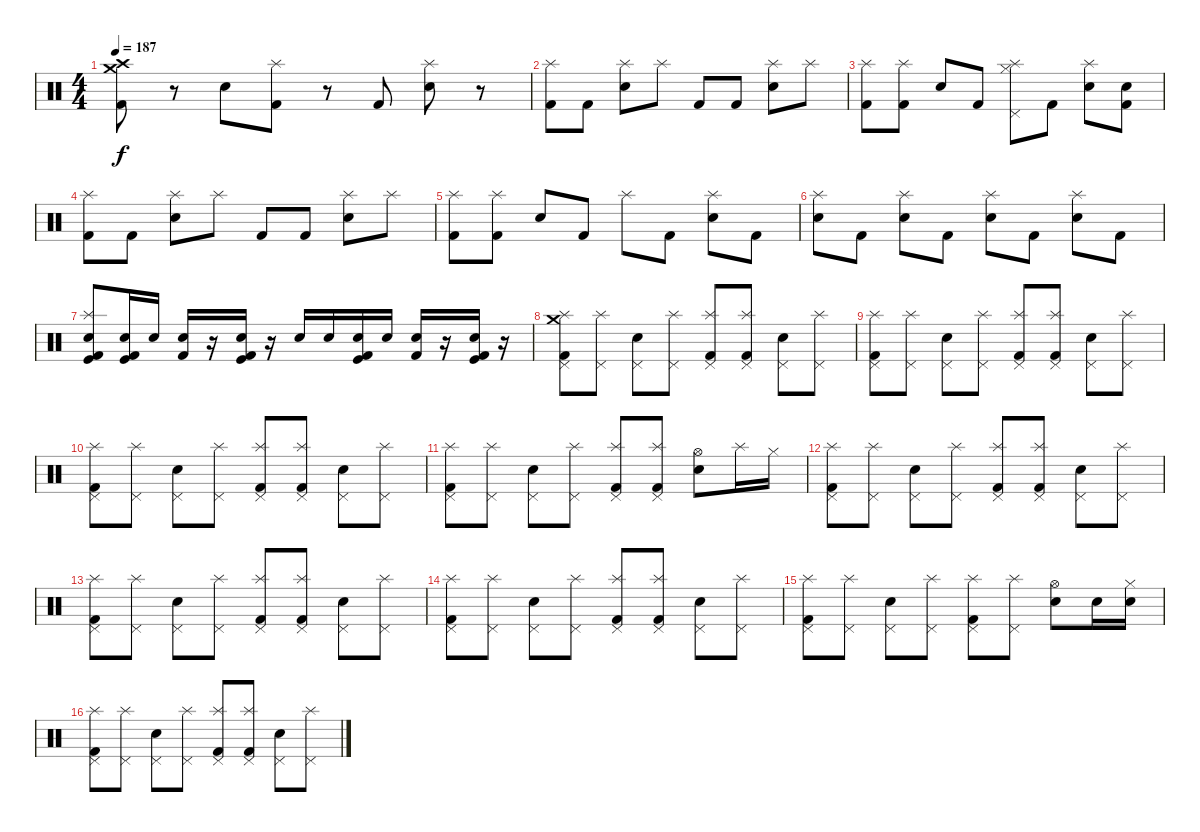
\track "" {instrument percussion}
\staff {score}
\articulation defaults
\ts (4 4)
\tempo 187
\clef neutral
\ks c
("Crash medium (hit)" "Crash high (hit)" "Kick (hit) 2").8{dy f} r.8 "Electric Snare (hit)".8 ("Splash (hit)" "Kick (hit) 2").8 r.8 "Kick (hit) 2".8 ("Splash (hit)" "Electric Snare (hit)").8 r.8 |
("Splash (hit)" "Kick (hit) 2").8 "Kick (hit) 2".8 ("Splash (hit)" "Electric Snare (hit)").8 "Splash (hit)".8 "Kick (hit) 2".8 "Kick (hit) 2".8 ("Splash (hit)" "Electric Snare (hit)").8 "Splash (hit)".8 |
("Splash (hit)" "Kick (hit) 2").8 ("Splash (hit)" "Kick (hit) 2").8 "Electric Snare (hit)".8 "Kick (hit) 2".8 ("Splash (hit)" "Hi-Hat (closed)" "Pedal Hi-Hat (hit)").8 "Kick (hit) 2".8 ("Splash (hit)" "Electric Snare (hit)").8 ("Electric Snare (hit)" "Kick (hit) 2").8 |
("Splash (hit)" "Kick (hit) 2").8 "Kick (hit) 2".8 ("Splash (hit)" "Electric Snare (hit)").8 "Splash (hit)".8 "Kick (hit) 2".8 "Kick (hit) 2".8 ("Splash (hit)" "Electric Snare (hit)").8 "Splash (hit)".8 |
("Splash (hit)" "Kick (hit) 2").8 ("Splash (hit)" "Kick (hit) 2").8 "Electric Snare (hit)".8 "Kick (hit) 2".8 "Splash (hit)".8 "Kick (hit) 2".8 ("Splash (hit)" "Electric Snare (hit)").8 "Kick (hit) 2".8 |
("Splash (hit)" "Electric Snare (hit)").8 "Kick (hit) 2".8 ("Splash (hit)" "Electric Snare (hit)").8 "Kick (hit) 2".8 ("Splash (hit)" "Electric Snare (hit)").8 "Kick (hit) 2".8 ("Splash (hit)" "Electric Snare (hit)").8 "Kick (hit) 2".8 |
("Splash (hit)" "Electric Snare (hit)" "Kick (hit)" "Kick (hit) 2").8 ("Kick (hit) 2" "Kick (hit)" "Electric Snare (hit)").16 "Electric Snare (hit)".16 ("Kick (hit) 2" "Electric Snare (hit)").16 r.16 ("Kick (hit) 2" "Kick (hit)" "Electric Snare (hit)").16 r.16 "Electric Snare (hit)".16 "Electric Snare (hit)".16 ("Kick (hit) 2" "Kick (hit)" "Electric Snare (hit)").16 "Electric Snare (hit)".16 ("Kick (hit) 2" "Electric Snare (hit)").16 r.16 ("Kick (hit) 2" "Kick (hit)" "Electric Snare (hit)").16 r.16 |
("Crash medium (hit)" "Pedal Hi-Hat (hit)" "Kick (hit) 2" "Splash (hit)").8 ("Pedal Hi-Hat (hit)" "Splash (hit)").8 ("Pedal Hi-Hat (hit)" "Electric Snare (hit)").8 ("Pedal Hi-Hat (hit)" "Splash (hit)").8 ("Pedal Hi-Hat (hit)" "Kick (hit) 2" "Splash (hit)").8 ("Pedal Hi-Hat (hit)" "Kick (hit) 2" "Splash (hit)").8 ("Pedal Hi-Hat (hit)" "Electric Snare (hit)").8 ("Pedal Hi-Hat (hit)" "Splash (hit)").8 |
("Pedal Hi-Hat (hit)" "Kick (hit) 2" "Splash (hit)").8 ("Pedal Hi-Hat (hit)" "Splash (hit)").8 ("Pedal Hi-Hat (hit)" "Electric Snare (hit)").8 ("Pedal Hi-Hat (hit)" "Splash (hit)").8 ("Pedal Hi-Hat (hit)" "Kick (hit) 2" "Splash (hit)").8 ("Pedal Hi-Hat (hit)" "Kick (hit) 2" "Splash (hit)").8 ("Pedal Hi-Hat (hit)" "Electric Snare (hit)").8 ("Pedal Hi-Hat (hit)" "Splash (hit)").8 |
("Pedal Hi-Hat (hit)" "Kick (hit) 2" "Splash (hit)").8 ("Pedal Hi-Hat (hit)" "Splash (hit)").8 ("Pedal Hi-Hat (hit)" "Electric Snare (hit)").8 ("Pedal Hi-Hat (hit)" "Splash (hit)").8 ("Pedal Hi-Hat (hit)" "Kick (hit) 2" "Splash (hit)").8 ("Pedal Hi-Hat (hit)" "Kick (hit) 2" "Splash (hit)").8 ("Pedal Hi-Hat (hit)" "Electric Snare (hit)").8 ("Pedal Hi-Hat (hit)" "Splash (hit)").8 |
("Pedal Hi-Hat (hit)" "Kick (hit) 2" "Splash (hit)").8 ("Pedal Hi-Hat (hit)" "Splash (hit)").8 ("Pedal Hi-Hat (hit)" "Electric Snare (hit)").8 ("Pedal Hi-Hat (hit)" "Splash (hit)").8 ("Pedal Hi-Hat (hit)" "Kick (hit) 2" "Splash (hit)").8 ("Pedal Hi-Hat (hit)" "Kick (hit) 2" "Splash (hit)").8 ("Hi-Hat (open)" "Electric Snare (hit)").8 "Splash (hit)".16 "Hi-Hat (closed)".16 |
("Pedal Hi-Hat (hit)" "Kick (hit) 2" "Splash (hit)").8 ("Pedal Hi-Hat (hit)" "Splash (hit)").8 ("Pedal Hi-Hat (hit)" "Electric Snare (hit)").8 ("Pedal Hi-Hat (hit)" "Splash (hit)").8 ("Pedal Hi-Hat (hit)" "Kick (hit) 2" "Splash (hit)").8 ("Pedal Hi-Hat (hit)" "Kick (hit) 2" "Splash (hit)").8 ("Pedal Hi-Hat (hit)" "Electric Snare (hit)").8 ("Pedal Hi-Hat (hit)" "Splash (hit)").8 |
("Pedal Hi-Hat (hit)" "Kick (hit) 2" "Splash (hit)").8 ("Pedal Hi-Hat (hit)" "Splash (hit)").8 ("Pedal Hi-Hat (hit)" "Electric Snare (hit)").8 ("Pedal Hi-Hat (hit)" "Splash (hit)").8 ("Pedal Hi-Hat (hit)" "Kick (hit) 2" "Splash (hit)").8 ("Pedal Hi-Hat (hit)" "Kick (hit) 2" "Splash (hit)").8 ("Pedal Hi-Hat (hit)" "Electric Snare (hit)").8 ("Pedal Hi-Hat (hit)" "Splash (hit)").8 |
("Pedal Hi-Hat (hit)" "Kick (hit) 2" "Splash (hit)").8 ("Pedal Hi-Hat (hit)" "Splash (hit)").8 ("Pedal Hi-Hat (hit)" "Electric Snare (hit)").8 ("Pedal Hi-Hat (hit)" "Splash (hit)").8 ("Pedal Hi-Hat (hit)" "Kick (hit) 2" "Splash (hit)").8 ("Pedal Hi-Hat (hit)" "Kick (hit) 2" "Splash (hit)").8 ("Pedal Hi-Hat (hit)" "Electric Snare (hit)").8 ("Pedal Hi-Hat (hit)" "Splash (hit)").8 |
("Pedal Hi-Hat (hit)" "Kick (hit) 2" "Splash (hit)").8 ("Pedal Hi-Hat (hit)" "Splash (hit)").8 ("Electric Snare (hit)" "Pedal Hi-Hat (hit)").8 ("Pedal Hi-Hat (hit)" "Splash (hit)").8 ("Pedal Hi-Hat (hit)" "Kick (hit) 2" "Splash (hit)").8 ("Pedal Hi-Hat (hit)" "Splash (hit)").8 ("Hi-Hat (open)" "Electric Snare (hit)").8 "Electric Snare (hit)".16 ("Hi-Hat (closed)" "Electric Snare (hit)").16 |
("Splash (hit)" "Pedal Hi-Hat (hit)" "Kick (hit) 2").8 ("Splash (hit)" "Pedal Hi-Hat (hit)").8 ("Pedal Hi-Hat (hit)" "Electric Snare (hit)").8 ("Splash (hit)" "Pedal Hi-Hat (hit)").8 ("Splash (hit)" "Pedal Hi-Hat (hit)" "Kick (hit) 2").8 ("Splash (hit)" "Pedal Hi-Hat (hit)" "Kick (hit) 2").8 ("Pedal Hi-Hat (hit)" "Electric Snare (hit)").8 ("Splash (hit)" "Pedal Hi-Hat (hit)").8
